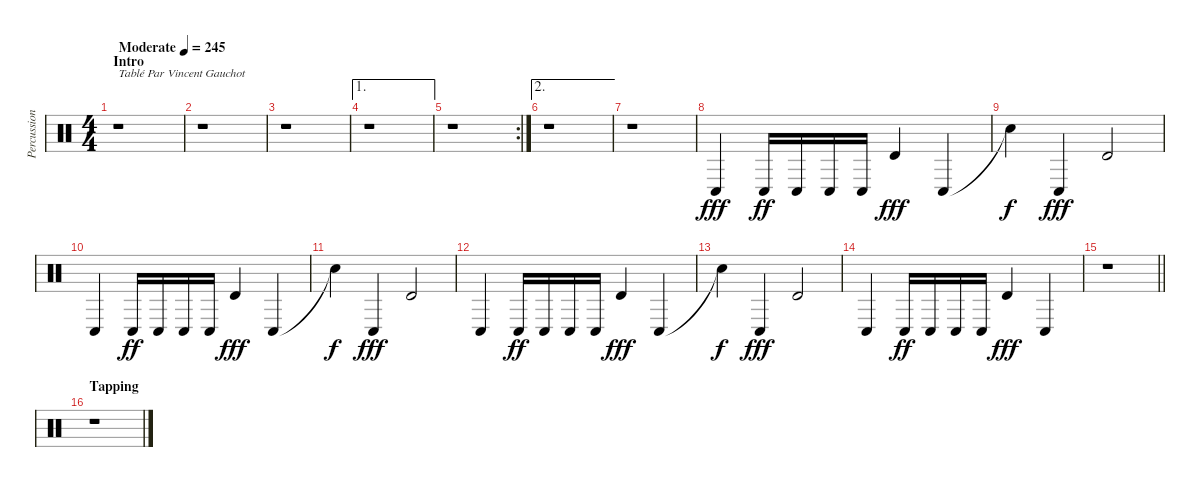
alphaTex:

\track ("Percussions Main droite" "Percussion") {instrument percussion}
\staff {score}
\articulation defaults
\ts (4 4)
\section ("" "Intro")
\tempo (245 "Moderate")
\clef neutral
\ks c
r.1{txt "Tablé Par Vincent Gauchot" dy fff} |
r.1 |
r.1 |
\ae 1
r.1 |
\rc 2
r.1 |
\ae 2
r.1 |
r.1 |
"Conga low (hit)".4 "Conga low (hit)".16{dy ff} "Conga low (hit)".16 "Conga low (hit)".16 "Conga low (hit)".16 "Timbale high (hit)".4{dy fff} "Conga low (hit)".4 |
"Snare (hit)"{t}.4{dy f} "Conga low (hit)".4{dy fff} "Timbale high (hit)".2 |
"Conga low (hit)".4 "Conga low (hit)".16{dy ff} "Conga low (hit)".16 "Conga low (hit)".16 "Conga low (hit)".16 "Timbale high (hit)".4{dy fff} "Conga low (hit)".4 |
"Snare (hit)"{t}.4{dy f} "Conga low (hit)".4{dy fff} "Timbale high (hit)".2 |
"Conga low (hit)".4 "Conga low (hit)".16{dy ff} "Conga low (hit)".16 "Conga low (hit)".16 "Conga low (hit)".16 "Timbale high (hit)".4{dy fff} "Conga low (hit)".4 |
"Snare (hit)"{t}.4{dy f} "Conga low (hit)".4{dy fff} "Timbale high (hit)".2 |
"Conga low (hit)".4 "Conga low (hit)".16{dy ff} "Conga low (hit)".16 "Conga low (hit)".16 "Conga low (hit)".16 "Timbale high (hit)".4{dy fff} "Conga low (hit)".4 |
\barLineRight lightlight
r.1 |
\section ("" "Tapping")
r.1
